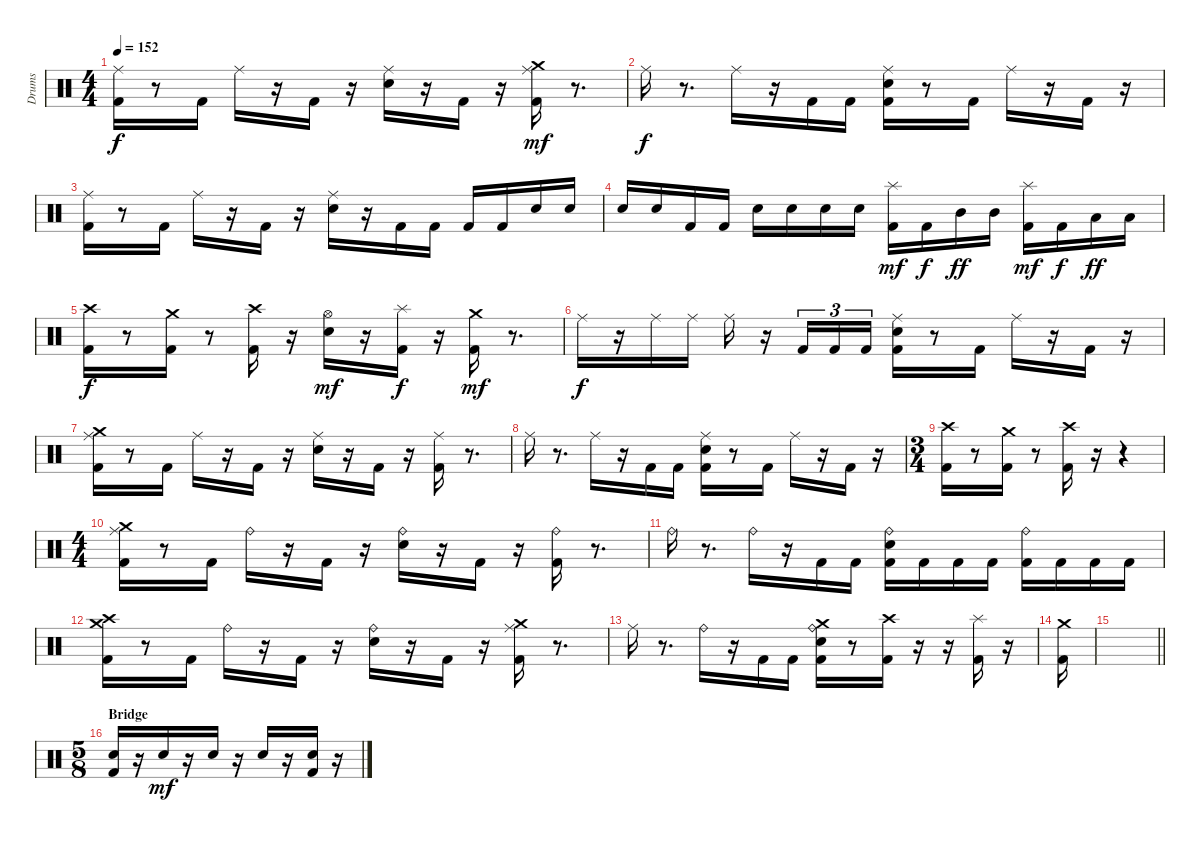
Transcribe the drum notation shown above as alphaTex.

\track ("Drums" "Drums") {instrument percussion}
\staff {score}
\articulation defaults
\ts (4 4)
\tempo 152
\clef neutral
\ks c
("Ride (middle)" "Kick (hit) 2").16{dy f} r.8 "Kick (hit) 2".16 "Ride (middle)".16 r.16 "Kick (hit) 2".16 r.16 ("Ride (middle)" "Snare (hit) 2").16 r.16 "Kick (hit) 2".16 r.16 ("Crash medium (hit)" "Ride (middle)" "Kick (hit) 2").16{dy mf} r.8{d} |
"Ride (middle)".16{dy f} r.8{d} "Ride (middle)".16 r.16 "Kick (hit) 2".16 "Kick (hit) 2".16 ("Ride (middle)" "Snare (hit) 2" "Kick (hit) 2").16 r.8 "Kick (hit) 2".16 "Ride (middle)".16 r.16 "Kick (hit) 2".16 r.16 |
("Ride (middle)" "Kick (hit) 2").16 r.8 "Kick (hit) 2".16 "Ride (middle)".16 r.16 "Kick (hit) 2".16 r.16 ("Ride (middle)" "Snare (hit) 2").16 r.16 "Kick (hit) 2".16 "Kick (hit) 2".16 "Kick (hit) 2".16 "Kick (hit) 2".16 "Snare (hit) 2".16 "Snare (hit) 2".16 |
"Snare (hit) 2".16 "Snare (hit) 2".16 "Kick (hit) 2".16 "Kick (hit) 2".16 "Snare (hit) 2".16 "Snare (hit) 2".16 "Snare (hit) 2".16 "Snare (hit) 2".16 ("Splash (hit)" "Kick (hit) 2").16{dy mf} "Kick (hit) 2".16{dy f} "Mid Tom (hit)".16{dy ff} "Mid Tom (hit)".16 ("Splash (hit)" "Kick (hit) 2").16{dy mf} "Kick (hit) 2".16{dy f} "Low Tom (hit)".16{dy ff} "Low Tom (hit)".16 |
("Crash high (hit)" "Kick (hit) 2").16{dy f} r.8 ("Crash medium (hit)" "Kick (hit) 2").16 r.8 ("Crash high (hit)" "Kick (hit) 2").16 r.16 ("Hi-Hat (open)" "Snare (hit) 2").16{dy mf} r.16 ("Splash (hit)" "Kick (hit) 2").16{dy f} r.16 ("Crash medium (hit)" "Kick (hit) 2").16{dy mf} r.8{d} |
"Ride (middle)".16{dy f} r.16 "Ride (middle)".16 "Ride (middle)".16 "Ride (middle)".16 r.16 "Kick (hit) 2".16{tu (3 2)} "Kick (hit) 2".16{tu (3 2)} "Kick (hit) 2".16{tu (3 2)} ("Ride (middle)" "Snare (hit) 2" "Kick (hit) 2").16 r.8 "Kick (hit) 2".16 "Ride (middle)".16 r.16 "Kick (hit) 2".16 r.16 |
("Crash medium (hit)" "Ride (middle)" "Kick (hit) 2").16 r.8 "Kick (hit) 2".16 "Ride (middle)".16 r.16 "Kick (hit) 2".16 r.16 ("Ride (middle)" "Snare (hit) 2").16 r.16 "Kick (hit) 2".16 r.16 ("Ride (middle)" "Kick (hit) 2").16 r.8{d} |
"Ride (middle)".16 r.8{d} "Ride (middle)".16 r.16 "Kick (hit) 2".16 "Kick (hit) 2".16 ("Ride (middle)" "Snare (hit) 2" "Kick (hit) 2").16 r.8 "Kick (hit) 2".16 "Ride (middle)".16 r.16 "Kick (hit) 2".16 r.16 |
\ts (3 4)
("Crash high (hit)" "Kick (hit) 2").16 r.8 ("Crash medium (hit)" "Kick (hit) 2").16 r.8 ("Crash high (hit)" "Kick (hit) 2").16 r.16 r.4 |
\ts (4 4)
("Crash medium (hit)" "Ride (middle)" "Kick (hit) 2").16 r.8 "Kick (hit) 2".16 "Ride (bell)".16 r.16 "Kick (hit) 2".16 r.16 ("Ride (bell)" "Snare (hit) 2").16 r.16 "Kick (hit) 2".16 r.16 ("Ride (bell)" "Kick (hit) 2").16 r.8{d} |
"Ride (bell)".16 r.8{d} "Ride (bell)".16 r.16 "Kick (hit) 2".16 "Kick (hit) 2".16 ("Ride (bell)" "Snare (hit) 2" "Kick (hit) 2").16 "Kick (hit) 2".16 "Kick (hit) 2".16 "Kick (hit) 2".16 ("Ride (bell)" "Kick (hit) 2").16 "Kick (hit) 2".16 "Kick (hit) 2".16 "Kick (hit) 2".16 |
("Crash medium (hit)" "Crash high (hit)" "Kick (hit) 2").16 r.8 "Kick (hit) 2".16 "Ride (bell)".16 r.16 "Kick (hit) 2".16 r.16 ("Ride (bell)" "Snare (hit) 2").16 r.16 "Kick (hit) 2".16 r.16 ("Crash medium (hit)" "Ride (middle)" "Kick (hit) 2").16 r.8{d} |
"Ride (middle)".16 r.8{d} "Ride (bell)".16 r.16 "Kick (hit) 2".16 "Kick (hit) 2".16 ("Crash medium (hit)" "Ride (bell)" "Snare (hit) 2" "Kick (hit) 2").16 r.8 ("Crash high (hit)" "Kick (hit) 2").16 r.16 r.16 ("Splash (hit)" "Kick (hit) 2").16 r.16 |
("Crash medium (hit)" "Kick (hit) 2").16 |
\barLineRight lightlight
|
\ts (5 8)
\section ("" "Bridge")
("Snare (hit) 2" "Kick (hit) 2").16 r.16 "Snare (hit) 2".16{dy mf} r.16 "Snare (hit) 2".16 r.16 "Snare (hit) 2".16 r.16 ("Snare (hit) 2" "Kick (hit) 2").16 r.16
